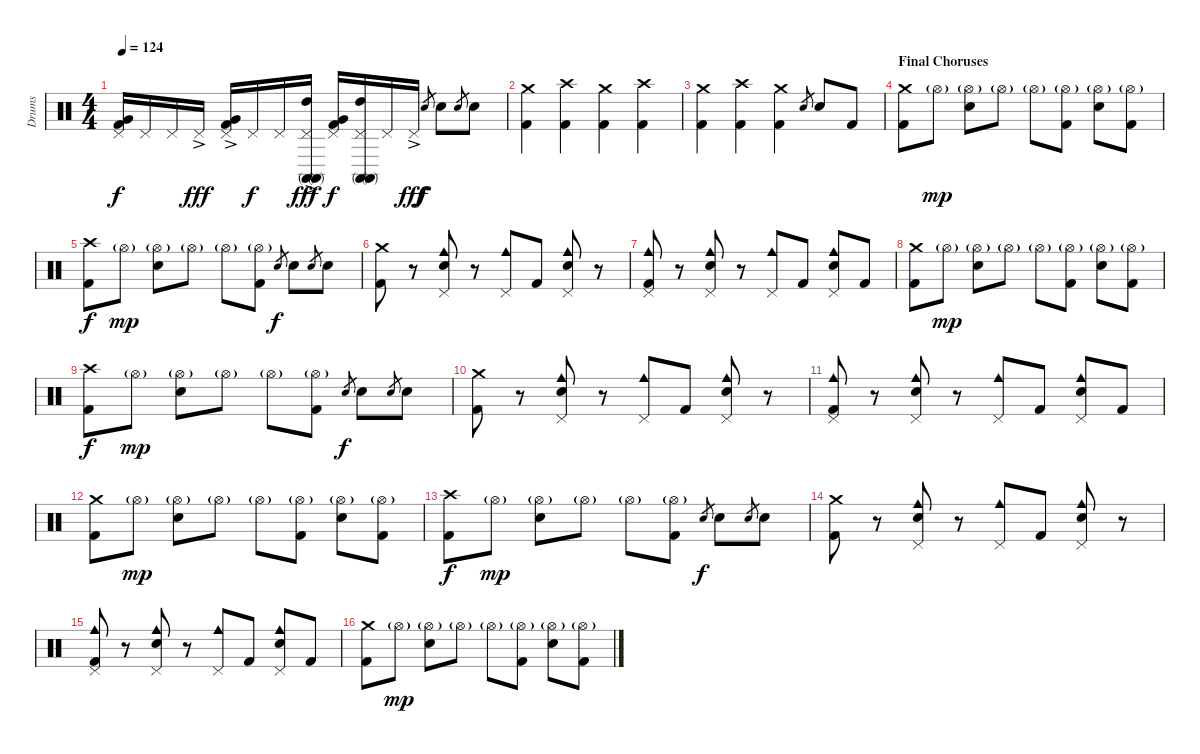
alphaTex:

\track ("Drums" "Drums") {instrument percussion}
\staff {score}
\articulation defaults
\ts (4 4)
\tempo 124
\clef neutral
\ks c
("Pedal Hi-Hat (hit)" "Kick (hit) 2" "Very Low Tom (hit)").16{dy f} "Pedal Hi-Hat (hit)".16 "Pedal Hi-Hat (hit)".16 "Pedal Hi-Hat (hit)"{ac}.16{dy fff} ("Pedal Hi-Hat (hit)"{ac} "Kick (hit) 2" "Very Low Tom (hit)").16 "Pedal Hi-Hat (hit)".16{dy f} "Pedal Hi-Hat (hit)".16 ("Pedal Hi-Hat (hit)"{ac} "Conga high (mute)" "Conga high (mute)" "High Tom (hit)").16{dy fff} ("Pedal Hi-Hat (hit)" "Kick (hit) 2" "Very Low Tom (hit)").16{dy f} ("Pedal Hi-Hat (hit)" "Conga high (mute)" "Conga high (mute)" "High Tom (hit)").16 "Pedal Hi-Hat (hit)".16 "Pedal Hi-Hat (hit)"{ac}.16{dy fff} "Snare (hit) 2".8{gr dy f} "Snare (hit) 2".8 "Snare (hit) 2".8{gr} "Snare (hit) 2".8 |
("Crash medium (hit)" "Kick (hit) 2").4 ("Crash high (hit)" "Kick (hit) 2").4 ("Crash medium (hit)" "Kick (hit) 2").4 ("Crash high (hit)" "Kick (hit) 2").4 |
("Crash medium (hit)" "Kick (hit) 2").4 ("Crash high (hit)" "Kick (hit) 2").4 ("Crash medium (hit)" "Kick (hit) 2").4 "Snare (hit) 2".8{gr} "Snare (hit) 2".8 "Kick (hit) 2".8 |
\section ("" "Final Choruses")
("Crash medium (hit)" "Kick (hit) 2").8 "Hi-Hat (open)"{g}.8{dy mp} ("Hi-Hat (open)"{g} "Snare (hit) 2").8 "Hi-Hat (open)"{g}.8 "Hi-Hat (open)"{g}.8 ("Hi-Hat (open)"{g} "Kick (hit) 2").8 ("Hi-Hat (open)"{g} "Snare (hit) 2").8 ("Hi-Hat (open)"{g} "Kick (hit) 2").8 |
("Crash high (hit)" "Kick (hit) 2").8{dy f} "Hi-Hat (open)"{g}.8{dy mp} ("Hi-Hat (open)"{g} "Snare (hit) 2").8 "Hi-Hat (open)"{g}.8 "Hi-Hat (open)"{g}.8 ("Hi-Hat (open)"{g} "Kick (hit) 2").8 "Snare (hit) 2".8{gr dy f} "Snare (hit) 2".8 "Snare (hit) 2".8{gr} "Snare (hit) 2".8 |
("Crash medium (hit)" "Kick (hit) 2").8 r.8 ("Cowbell medium (hit)" "Pedal Hi-Hat (hit)" "Snare (hit) 2").8 r.8 ("Cowbell medium (hit)" "Pedal Hi-Hat (hit)").8 "Kick (hit) 2".8 ("Cowbell medium (hit)" "Pedal Hi-Hat (hit)" "Snare (hit) 2").8 r.8 |
("Cowbell medium (hit)" "Pedal Hi-Hat (hit)" "Kick (hit) 2").8 r.8 ("Cowbell medium (hit)" "Pedal Hi-Hat (hit)" "Snare (hit) 2").8 r.8 ("Cowbell medium (hit)" "Pedal Hi-Hat (hit)").8 "Kick (hit) 2".8 ("Cowbell medium (hit)" "Pedal Hi-Hat (hit)" "Snare (hit) 2").8 "Kick (hit) 2".8 |
("Crash medium (hit)" "Kick (hit) 2").8 "Hi-Hat (open)"{g}.8{dy mp} ("Hi-Hat (open)"{g} "Snare (hit) 2").8 "Hi-Hat (open)"{g}.8 "Hi-Hat (open)"{g}.8 ("Hi-Hat (open)"{g} "Kick (hit) 2").8 ("Hi-Hat (open)"{g} "Snare (hit) 2").8 ("Hi-Hat (open)"{g} "Kick (hit) 2").8 |
("Crash high (hit)" "Kick (hit) 2").8{dy f} "Hi-Hat (open)"{g}.8{dy mp} ("Hi-Hat (open)"{g} "Snare (hit) 2").8 "Hi-Hat (open)"{g}.8 "Hi-Hat (open)"{g}.8 ("Hi-Hat (open)"{g} "Kick (hit) 2").8 "Snare (hit) 2".8{gr dy f} "Snare (hit) 2".8 "Snare (hit) 2".8{gr} "Snare (hit) 2".8 |
("Crash medium (hit)" "Kick (hit) 2").8 r.8 ("Cowbell medium (hit)" "Pedal Hi-Hat (hit)" "Snare (hit) 2").8 r.8 ("Cowbell medium (hit)" "Pedal Hi-Hat (hit)").8 "Kick (hit) 2".8 ("Cowbell medium (hit)" "Pedal Hi-Hat (hit)" "Snare (hit) 2").8 r.8 |
("Cowbell medium (hit)" "Pedal Hi-Hat (hit)" "Kick (hit) 2").8 r.8 ("Cowbell medium (hit)" "Pedal Hi-Hat (hit)" "Snare (hit) 2").8 r.8 ("Cowbell medium (hit)" "Pedal Hi-Hat (hit)").8 "Kick (hit) 2".8 ("Cowbell medium (hit)" "Pedal Hi-Hat (hit)" "Snare (hit) 2").8 "Kick (hit) 2".8 |
("Crash medium (hit)" "Kick (hit) 2").8 "Hi-Hat (open)"{g}.8{dy mp} ("Hi-Hat (open)"{g} "Snare (hit) 2").8 "Hi-Hat (open)"{g}.8 "Hi-Hat (open)"{g}.8 ("Hi-Hat (open)"{g} "Kick (hit) 2").8 ("Hi-Hat (open)"{g} "Snare (hit) 2").8 ("Hi-Hat (open)"{g} "Kick (hit) 2").8 |
("Crash high (hit)" "Kick (hit) 2").8{dy f} "Hi-Hat (open)"{g}.8{dy mp} ("Hi-Hat (open)"{g} "Snare (hit) 2").8 "Hi-Hat (open)"{g}.8 "Hi-Hat (open)"{g}.8 ("Hi-Hat (open)"{g} "Kick (hit) 2").8 "Snare (hit) 2".8{gr dy f} "Snare (hit) 2".8 "Snare (hit) 2".8{gr} "Snare (hit) 2".8 |
("Crash medium (hit)" "Kick (hit) 2").8 r.8 ("Cowbell medium (hit)" "Pedal Hi-Hat (hit)" "Snare (hit) 2").8 r.8 ("Cowbell medium (hit)" "Pedal Hi-Hat (hit)").8 "Kick (hit) 2".8 ("Cowbell medium (hit)" "Pedal Hi-Hat (hit)" "Snare (hit) 2").8 r.8 |
("Cowbell medium (hit)" "Pedal Hi-Hat (hit)" "Kick (hit) 2").8 r.8 ("Cowbell medium (hit)" "Pedal Hi-Hat (hit)" "Snare (hit) 2").8 r.8 ("Cowbell medium (hit)" "Pedal Hi-Hat (hit)").8 "Kick (hit) 2".8 ("Cowbell medium (hit)" "Pedal Hi-Hat (hit)" "Snare (hit) 2").8 "Kick (hit) 2".8 |
("Crash medium (hit)" "Kick (hit) 2").8 "Hi-Hat (open)"{g}.8{dy mp} ("Hi-Hat (open)"{g} "Snare (hit) 2").8 "Hi-Hat (open)"{g}.8 "Hi-Hat (open)"{g}.8 ("Hi-Hat (open)"{g} "Kick (hit) 2").8 ("Hi-Hat (open)"{g} "Snare (hit) 2").8 ("Hi-Hat (open)"{g} "Kick (hit) 2").8
